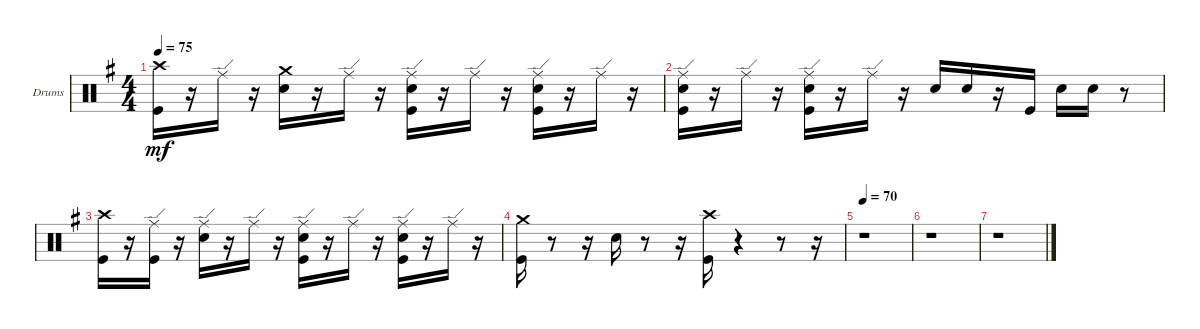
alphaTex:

\bracketExtendMode groupsimilarinstruments
\firstSystemTrackNameOrientation horizontal
\otherSystemsTrackNameOrientation horizontal
\track ("Drumkit" "Drums") {instrument percussion}
\staff {score}
\articulation defaults
\ts (4 4)
\tempo 75
\clef neutral
\ks eminor
("Kick (hit)" "Crash high (hit)").16{dy mf} r.16 "Ride (edge)".16 r.16 ("Snare (hit) 2" "Crash medium (hit)").16 r.16 "Ride (edge)".16 r.16 ("Kick (hit)" "Snare (hit) 2" "Ride (edge)").16 r.16 "Ride (edge)".16 r.16 ("Kick (hit)" "Snare (hit) 2" "Ride (edge)").16 r.16 "Ride (edge)".16 r.16 |
("Kick (hit)" "Snare (hit) 2" "Ride (edge)").16 r.16 "Ride (edge)".16 r.16 ("Kick (hit)" "Snare (hit) 2" "Ride (edge)").16 r.16 "Ride (edge)".16 r.16 "Snare (hit) 2".16 "Snare (hit) 2".16 r.16 "Kick (hit)".16 "Snare (hit) 2".16 "Snare (hit) 2".16 r.8 |
("Kick (hit)" "Crash high (hit)").16 r.16 ("Kick (hit)" "Ride (edge)").16 r.16 ("Snare (hit) 2" "Ride (edge)").16 r.16 "Ride (edge)".16 r.16 ("Kick (hit)" "Snare (hit) 2" "Ride (edge)").16 r.16 "Ride (edge)".16 r.16 ("Kick (hit)" "Snare (hit) 2" "Ride (edge)").16 r.16 "Ride (edge)".16 r.16 |
("Kick (hit)" "Crash medium (hit)").16 r.8 r.16 "Snare (hit) 2".16 r.8 r.16 ("Kick (hit)" "Crash high (hit)").16 r.4 r.8 r.16 |
\tempo 70
r.1 |
r.1 |
r.1
